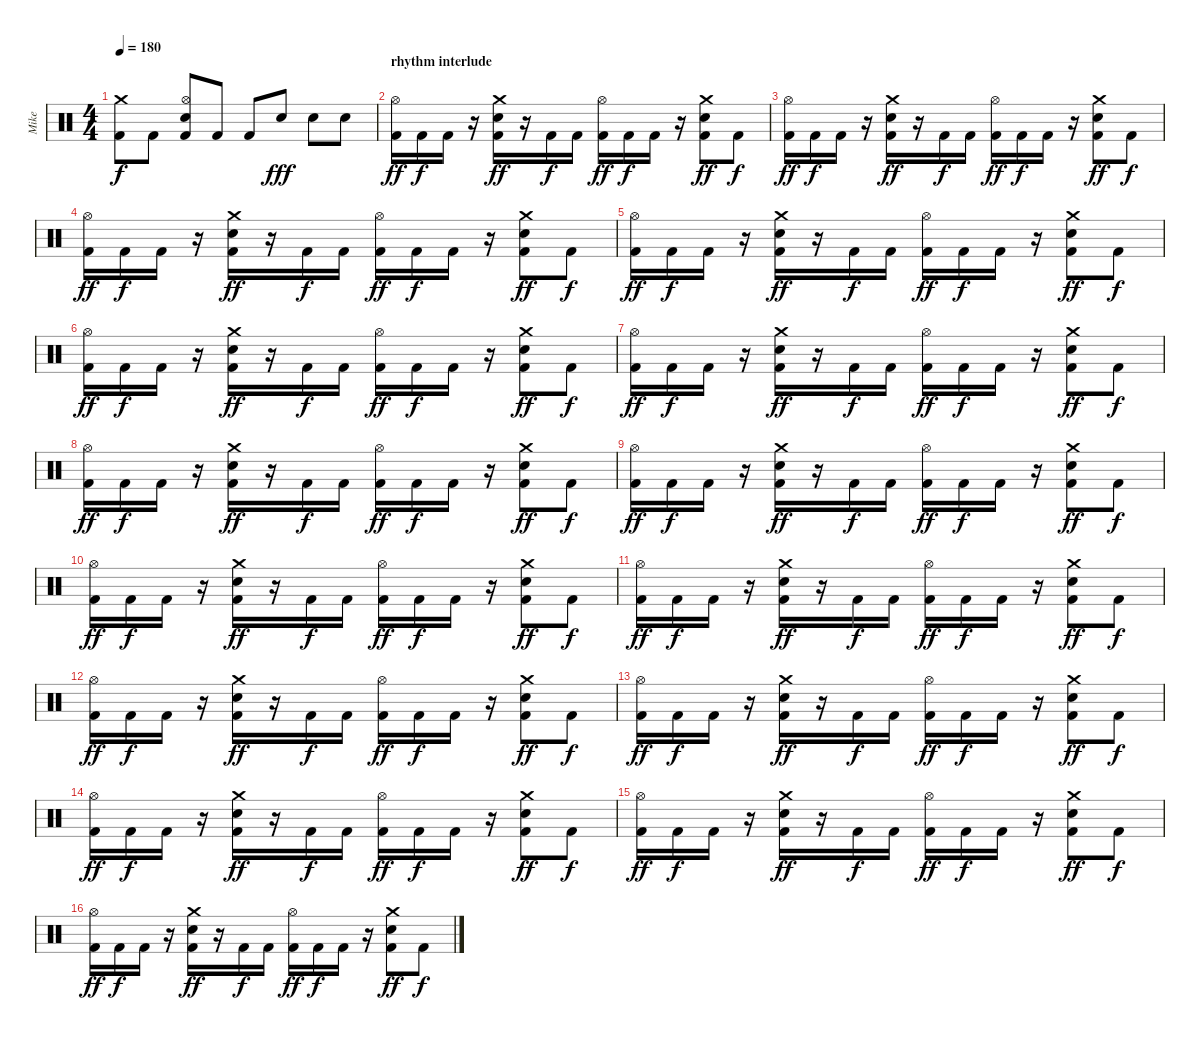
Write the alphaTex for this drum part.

\track ("Mike" "Mike") {instrument percussion}
\staff {score}
\articulation defaults
\ts (4 4)
\tempo 180
\clef neutral
\ks c
("Crash medium (hit)" "Kick (hit) 2").8{dy f} "Kick (hit) 2".8 ("Hi-Hat (open)" "Snare (hit) 2" "Kick (hit) 2").8 "Kick (hit) 2".8 "Kick (hit) 2".8 "Snare (hit) 2".8{dy fff} "Snare (hit) 2".8 "Snare (hit) 2".8 |
\section ("" "rhythm interlude")
("Hi-Hat (open)" "Kick (hit) 2").16{dy ff} "Kick (hit) 2".16{dy f} "Kick (hit) 2".16 r.16 ("Crash medium (hit)" "Snare (hit) 2" "Kick (hit) 2").16{dy ff} r.16 "Kick (hit) 2".16{dy f} "Kick (hit) 2".16 ("Hi-Hat (open)" "Kick (hit) 2").16{dy ff} "Kick (hit) 2".16{dy f} "Kick (hit) 2".16 r.16 ("Crash medium (hit)" "Snare (hit) 2" "Kick (hit) 2").8{dy ff} "Kick (hit) 2".8{dy f} |
("Hi-Hat (open)" "Kick (hit) 2").16{dy ff} "Kick (hit) 2".16{dy f} "Kick (hit) 2".16 r.16 ("Crash medium (hit)" "Snare (hit) 2" "Kick (hit) 2").16{dy ff} r.16 "Kick (hit) 2".16{dy f} "Kick (hit) 2".16 ("Hi-Hat (open)" "Kick (hit) 2").16{dy ff} "Kick (hit) 2".16{dy f} "Kick (hit) 2".16 r.16 ("Crash medium (hit)" "Snare (hit) 2" "Kick (hit) 2").8{dy ff} "Kick (hit) 2".8{dy f} |
("Hi-Hat (open)" "Kick (hit) 2").16{dy ff} "Kick (hit) 2".16{dy f} "Kick (hit) 2".16 r.16 ("Crash medium (hit)" "Snare (hit) 2" "Kick (hit) 2").16{dy ff} r.16 "Kick (hit) 2".16{dy f} "Kick (hit) 2".16 ("Hi-Hat (open)" "Kick (hit) 2").16{dy ff} "Kick (hit) 2".16{dy f} "Kick (hit) 2".16 r.16 ("Crash medium (hit)" "Snare (hit) 2" "Kick (hit) 2").8{dy ff} "Kick (hit) 2".8{dy f} |
("Hi-Hat (open)" "Kick (hit) 2").16{dy ff} "Kick (hit) 2".16{dy f} "Kick (hit) 2".16 r.16 ("Crash medium (hit)" "Snare (hit) 2" "Kick (hit) 2").16{dy ff} r.16 "Kick (hit) 2".16{dy f} "Kick (hit) 2".16 ("Hi-Hat (open)" "Kick (hit) 2").16{dy ff} "Kick (hit) 2".16{dy f} "Kick (hit) 2".16 r.16 ("Crash medium (hit)" "Snare (hit) 2" "Kick (hit) 2").8{dy ff} "Kick (hit) 2".8{dy f} |
("Hi-Hat (open)" "Kick (hit) 2").16{dy ff} "Kick (hit) 2".16{dy f} "Kick (hit) 2".16 r.16 ("Crash medium (hit)" "Snare (hit) 2" "Kick (hit) 2").16{dy ff} r.16 "Kick (hit) 2".16{dy f} "Kick (hit) 2".16 ("Hi-Hat (open)" "Kick (hit) 2").16{dy ff} "Kick (hit) 2".16{dy f} "Kick (hit) 2".16 r.16 ("Crash medium (hit)" "Snare (hit) 2" "Kick (hit) 2").8{dy ff} "Kick (hit) 2".8{dy f} |
("Hi-Hat (open)" "Kick (hit) 2").16{dy ff} "Kick (hit) 2".16{dy f} "Kick (hit) 2".16 r.16 ("Crash medium (hit)" "Snare (hit) 2" "Kick (hit) 2").16{dy ff} r.16 "Kick (hit) 2".16{dy f} "Kick (hit) 2".16 ("Hi-Hat (open)" "Kick (hit) 2").16{dy ff} "Kick (hit) 2".16{dy f} "Kick (hit) 2".16 r.16 ("Crash medium (hit)" "Snare (hit) 2" "Kick (hit) 2").8{dy ff} "Kick (hit) 2".8{dy f} |
("Hi-Hat (open)" "Kick (hit) 2").16{dy ff} "Kick (hit) 2".16{dy f} "Kick (hit) 2".16 r.16 ("Crash medium (hit)" "Snare (hit) 2" "Kick (hit) 2").16{dy ff} r.16 "Kick (hit) 2".16{dy f} "Kick (hit) 2".16 ("Hi-Hat (open)" "Kick (hit) 2").16{dy ff} "Kick (hit) 2".16{dy f} "Kick (hit) 2".16 r.16 ("Crash medium (hit)" "Snare (hit) 2" "Kick (hit) 2").8{dy ff} "Kick (hit) 2".8{dy f} |
("Hi-Hat (open)" "Kick (hit) 2").16{dy ff} "Kick (hit) 2".16{dy f} "Kick (hit) 2".16 r.16 ("Crash medium (hit)" "Snare (hit) 2" "Kick (hit) 2").16{dy ff} r.16 "Kick (hit) 2".16{dy f} "Kick (hit) 2".16 ("Hi-Hat (open)" "Kick (hit) 2").16{dy ff} "Kick (hit) 2".16{dy f} "Kick (hit) 2".16 r.16 ("Crash medium (hit)" "Snare (hit) 2" "Kick (hit) 2").8{dy ff} "Kick (hit) 2".8{dy f} |
("Hi-Hat (open)" "Kick (hit) 2").16{dy ff} "Kick (hit) 2".16{dy f} "Kick (hit) 2".16 r.16 ("Crash medium (hit)" "Snare (hit) 2" "Kick (hit) 2").16{dy ff} r.16 "Kick (hit) 2".16{dy f} "Kick (hit) 2".16 ("Hi-Hat (open)" "Kick (hit) 2").16{dy ff} "Kick (hit) 2".16{dy f} "Kick (hit) 2".16 r.16 ("Crash medium (hit)" "Snare (hit) 2" "Kick (hit) 2").8{dy ff} "Kick (hit) 2".8{dy f} |
("Hi-Hat (open)" "Kick (hit) 2").16{dy ff} "Kick (hit) 2".16{dy f} "Kick (hit) 2".16 r.16 ("Crash medium (hit)" "Snare (hit) 2" "Kick (hit) 2").16{dy ff} r.16 "Kick (hit) 2".16{dy f} "Kick (hit) 2".16 ("Hi-Hat (open)" "Kick (hit) 2").16{dy ff} "Kick (hit) 2".16{dy f} "Kick (hit) 2".16 r.16 ("Crash medium (hit)" "Snare (hit) 2" "Kick (hit) 2").8{dy ff} "Kick (hit) 2".8{dy f} |
("Hi-Hat (open)" "Kick (hit) 2").16{dy ff} "Kick (hit) 2".16{dy f} "Kick (hit) 2".16 r.16 ("Crash medium (hit)" "Snare (hit) 2" "Kick (hit) 2").16{dy ff} r.16 "Kick (hit) 2".16{dy f} "Kick (hit) 2".16 ("Hi-Hat (open)" "Kick (hit) 2").16{dy ff} "Kick (hit) 2".16{dy f} "Kick (hit) 2".16 r.16 ("Crash medium (hit)" "Snare (hit) 2" "Kick (hit) 2").8{dy ff} "Kick (hit) 2".8{dy f} |
("Hi-Hat (open)" "Kick (hit) 2").16{dy ff} "Kick (hit) 2".16{dy f} "Kick (hit) 2".16 r.16 ("Crash medium (hit)" "Snare (hit) 2" "Kick (hit) 2").16{dy ff} r.16 "Kick (hit) 2".16{dy f} "Kick (hit) 2".16 ("Hi-Hat (open)" "Kick (hit) 2").16{dy ff} "Kick (hit) 2".16{dy f} "Kick (hit) 2".16 r.16 ("Crash medium (hit)" "Snare (hit) 2" "Kick (hit) 2").8{dy ff} "Kick (hit) 2".8{dy f} |
("Hi-Hat (open)" "Kick (hit) 2").16{dy ff} "Kick (hit) 2".16{dy f} "Kick (hit) 2".16 r.16 ("Crash medium (hit)" "Snare (hit) 2" "Kick (hit) 2").16{dy ff} r.16 "Kick (hit) 2".16{dy f} "Kick (hit) 2".16 ("Hi-Hat (open)" "Kick (hit) 2").16{dy ff} "Kick (hit) 2".16{dy f} "Kick (hit) 2".16 r.16 ("Crash medium (hit)" "Snare (hit) 2" "Kick (hit) 2").8{dy ff} "Kick (hit) 2".8{dy f} |
("Hi-Hat (open)" "Kick (hit) 2").16{dy ff} "Kick (hit) 2".16{dy f} "Kick (hit) 2".16 r.16 ("Crash medium (hit)" "Snare (hit) 2" "Kick (hit) 2").16{dy ff} r.16 "Kick (hit) 2".16{dy f} "Kick (hit) 2".16 ("Hi-Hat (open)" "Kick (hit) 2").16{dy ff} "Kick (hit) 2".16{dy f} "Kick (hit) 2".16 r.16 ("Crash medium (hit)" "Snare (hit) 2" "Kick (hit) 2").8{dy ff} "Kick (hit) 2".8{dy f} |
("Hi-Hat (open)" "Kick (hit) 2").16{dy ff} "Kick (hit) 2".16{dy f} "Kick (hit) 2".16 r.16 ("Crash medium (hit)" "Snare (hit) 2" "Kick (hit) 2").16{dy ff} r.16 "Kick (hit) 2".16{dy f} "Kick (hit) 2".16 ("Hi-Hat (open)" "Kick (hit) 2").16{dy ff} "Kick (hit) 2".16{dy f} "Kick (hit) 2".16 r.16 ("Crash medium (hit)" "Snare (hit) 2" "Kick (hit) 2").8{dy ff} "Kick (hit) 2".8{dy f}
